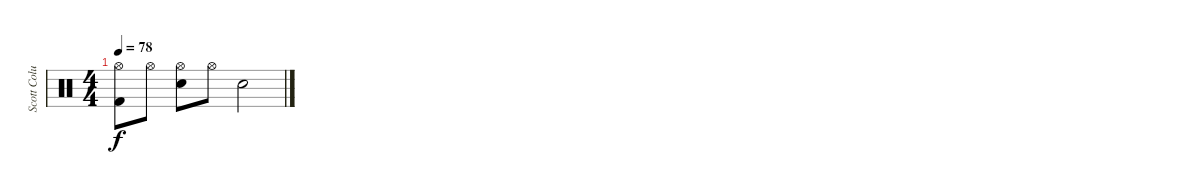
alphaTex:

\track ("Scott Columbus" "Scott Colu") {instrument percussion}
\staff {score}
\articulation defaults
\ts (4 4)
\tempo 78
\clef neutral
\ks c
("Kick (hit) 2" "Hi-Hat (open)").8{dy f} "Hi-Hat (open)".8 ("Electric Snare (hit)" "Hi-Hat (open)").8 "Hi-Hat (open)".8 "Electric Snare (hit)".2
